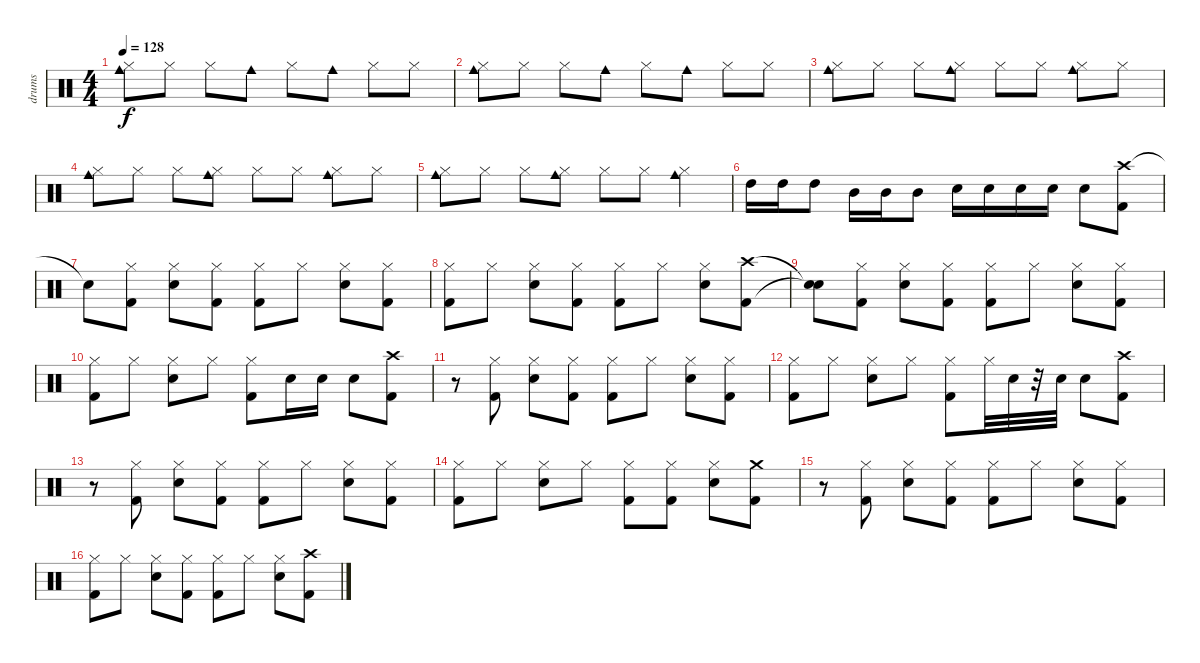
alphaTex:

\track ("drums" "drums") {instrument percussion}
\staff {score}
\articulation defaults
\ts (4 4)
\tempo 128
\clef neutral
\ks c
("Cowbell medium (hit)" "Hi-Hat (closed)").8{dy f} "Hi-Hat (closed)".8 "Hi-Hat (closed)".8 "Cowbell medium (hit)".8 "Hi-Hat (closed)".8 "Cowbell medium (hit)".8 "Hi-Hat (closed)".8 "Hi-Hat (closed)".8 |
("Cowbell medium (hit)" "Hi-Hat (closed)").8 "Hi-Hat (closed)".8 "Hi-Hat (closed)".8 "Cowbell medium (hit)".8 "Hi-Hat (closed)".8 "Cowbell medium (hit)".8 "Hi-Hat (closed)".8 "Hi-Hat (closed)".8 |
("Cowbell medium (hit)" "Hi-Hat (closed)").8 "Hi-Hat (closed)".8 "Hi-Hat (closed)".8 ("Hi-Hat (closed)" "Cowbell medium (hit)").8 "Hi-Hat (closed)".8 "Hi-Hat (closed)".8 ("Cowbell medium (hit)" "Hi-Hat (closed)").8 "Hi-Hat (closed)".8 |
("Cowbell medium (hit)" "Hi-Hat (closed)").8 "Hi-Hat (closed)".8 "Hi-Hat (closed)".8 ("Cowbell medium (hit)" "Hi-Hat (closed)").8 "Hi-Hat (closed)".8 "Hi-Hat (closed)".8 ("Cowbell medium (hit)" "Hi-Hat (closed)").8 "Hi-Hat (closed)".8 |
("Cowbell medium (hit)" "Hi-Hat (closed)").8 "Hi-Hat (closed)".8 "Hi-Hat (closed)".8 ("Cowbell medium (hit)" "Hi-Hat (closed)").8 "Hi-Hat (closed)".8 "Hi-Hat (closed)".8 ("Hi-Hat (closed)" "Cowbell medium (hit)").4 |
"High Tom (hit)".16 "High Tom (hit)".16 "High Tom (hit)".8 "Mid Tom (hit)".16 "Mid Tom (hit)".16 "Mid Tom (hit)".8 "Snare (hit) 2".16 "Snare (hit) 2".16 "Snare (hit) 2".16 "Snare (hit) 2".16 "Snare (hit) 2".8 ("Crash high (hit)" "Kick (hit) 2").8 |
"Snare (hit)"{t}.8 ("Kick (hit) 2" "Hi-Hat (closed)").8 ("Snare (hit) 2" "Hi-Hat (closed)").8 ("Kick (hit) 2" "Hi-Hat (closed)").8 ("Kick (hit) 2" "Hi-Hat (closed)").8 "Hi-Hat (closed)".8 ("Snare (hit) 2" "Hi-Hat (closed)").8 ("Kick (hit) 2" "Hi-Hat (closed)").8 |
("Kick (hit) 2" "Hi-Hat (closed)").8 "Hi-Hat (closed)".8 ("Snare (hit) 2" "Hi-Hat (closed)").8 ("Kick (hit) 2" "Hi-Hat (closed)").8 ("Kick (hit) 2" "Hi-Hat (closed)").8 "Hi-Hat (closed)".8 ("Snare (hit) 2" "Hi-Hat (closed)").8 ("Crash high (hit)" "Kick (hit) 2").8 |
("Snare (hit)"{t} "Snare (hit)"{t}).8 ("Kick (hit) 2" "Hi-Hat (closed)").8 ("Snare (hit) 2" "Hi-Hat (closed)").8 ("Kick (hit) 2" "Hi-Hat (closed)").8 ("Kick (hit) 2" "Hi-Hat (closed)").8 "Hi-Hat (closed)".8 ("Snare (hit) 2" "Hi-Hat (closed)").8 ("Kick (hit) 2" "Hi-Hat (closed)").8 |
("Kick (hit) 2" "Hi-Hat (closed)").8 "Hi-Hat (closed)".8 ("Snare (hit) 2" "Hi-Hat (closed)").8 "Hi-Hat (closed)".8 ("Kick (hit) 2" "Hi-Hat (closed)").8 "Snare (hit) 2".16 "Snare (hit) 2".16 "Snare (hit) 2".8 ("Crash high (hit)" "Kick (hit) 2").8 |
r.8 ("Kick (hit) 2" "Hi-Hat (closed)").8 ("Snare (hit) 2" "Hi-Hat (closed)").8 ("Kick (hit) 2" "Hi-Hat (closed)").8 ("Kick (hit) 2" "Hi-Hat (closed)").8 "Hi-Hat (closed)".8 ("Snare (hit) 2" "Hi-Hat (closed)").8 ("Kick (hit) 2" "Hi-Hat (closed)").8 |
("Kick (hit) 2" "Hi-Hat (closed)").8 "Hi-Hat (closed)".8 ("Snare (hit) 2" "Hi-Hat (closed)").8 "Hi-Hat (closed)".8 ("Kick (hit) 2" "Hi-Hat (closed)").8 "Hi-Hat (closed)".32 "Snare (hit) 2".32 r.32 "Snare (hit) 2".32 "Snare (hit) 2".8 ("Crash high (hit)" "Kick (hit) 2").8 |
r.8 ("Kick (hit) 2" "Hi-Hat (closed)").8 ("Snare (hit) 2" "Hi-Hat (closed)").8 ("Kick (hit) 2" "Hi-Hat (closed)").8 ("Kick (hit) 2" "Hi-Hat (closed)").8 "Hi-Hat (closed)".8 ("Snare (hit) 2" "Hi-Hat (closed)").8 ("Kick (hit) 2" "Hi-Hat (closed)").8 |
("Kick (hit) 2" "Hi-Hat (closed)").8 "Hi-Hat (closed)".8 ("Snare (hit) 2" "Hi-Hat (closed)").8 "Hi-Hat (closed)".8 ("Kick (hit) 2" "Hi-Hat (closed)").8 ("Kick (hit) 2" "Hi-Hat (closed)").8 ("Snare (hit) 2" "Hi-Hat (closed)").8 ("Crash medium (hit)" "Kick (hit) 2").8 |
r.8 ("Kick (hit) 2" "Hi-Hat (closed)").8 ("Snare (hit) 2" "Hi-Hat (closed)").8 ("Kick (hit) 2" "Hi-Hat (closed)").8 ("Kick (hit) 2" "Hi-Hat (closed)").8 "Hi-Hat (closed)".8 ("Snare (hit) 2" "Hi-Hat (closed)").8 ("Kick (hit) 2" "Hi-Hat (closed)").8 |
("Kick (hit) 2" "Hi-Hat (closed)").8 "Hi-Hat (closed)".8 ("Snare (hit) 2" "Hi-Hat (closed)").8 ("Kick (hit) 2" "Hi-Hat (closed)").8 ("Kick (hit) 2" "Hi-Hat (closed)").8 "Hi-Hat (closed)".8 ("Snare (hit) 2" "Hi-Hat (closed)").8 ("Kick (hit) 2" "Crash high (hit)").8
